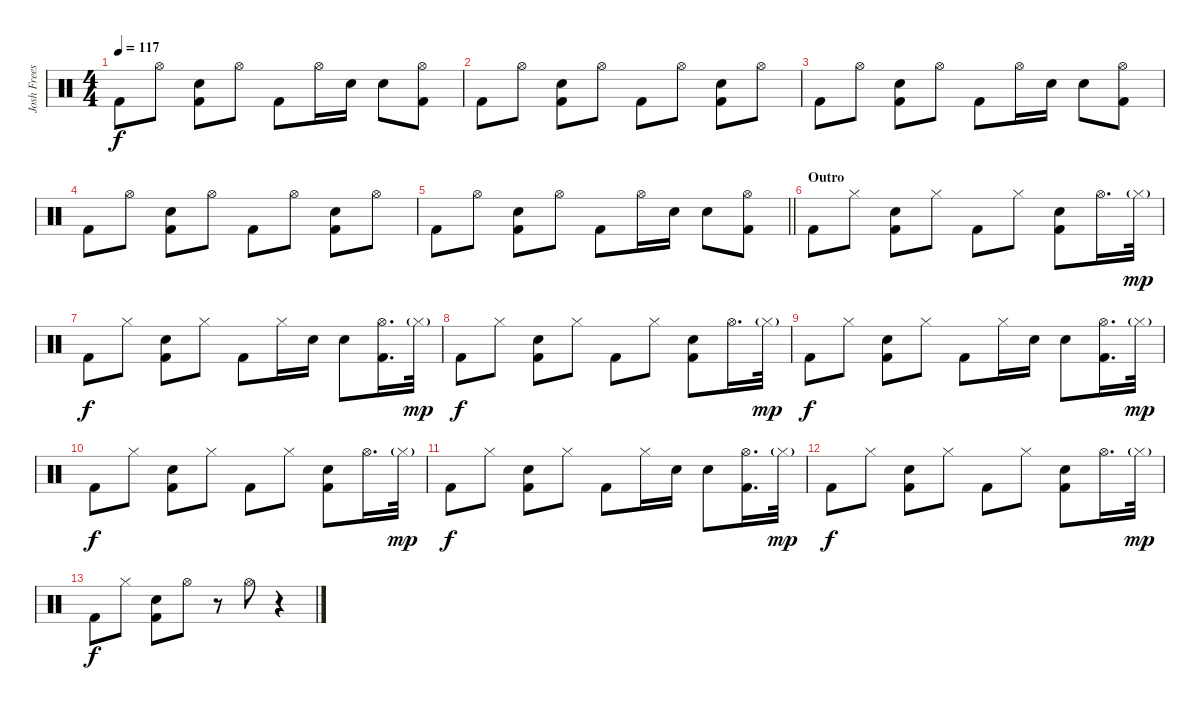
\track ("Josh Freese" "Josh Frees") {instrument percussion}
\staff {score}
\articulation defaults
\ts (4 4)
\tempo 117
\clef neutral
\ks c "Kick (hit) 2".8{dy f} "Hi-Hat (open)".8
("Electric Snare (hit)" "Kick (hit) 2").8 "Hi-Hat (open)".8 "Kick (hit) 2".8 "Hi-Hat (open)".16 "Electric Snare (hit)".16 "Electric Snare (hit)".8 ("Hi-Hat (open)" "Kick (hit) 2").8 |
"Kick (hit) 2".8 "Hi-Hat (open)".8 ("Electric Snare (hit)" "Kick (hit) 2").8 "Hi-Hat (open)".8 "Kick (hit) 2".8 "Hi-Hat (open)".8 ("Electric Snare (hit)" "Kick (hit) 2").8 "Hi-Hat (open)".8 |
"Kick (hit) 2".8 "Hi-Hat (open)".8 ("Electric Snare (hit)" "Kick (hit) 2").8 "Hi-Hat (open)".8 "Kick (hit) 2".8 "Hi-Hat (open)".16 "Electric Snare (hit)".16 "Electric Snare (hit)".8 ("Hi-Hat (open)" "Kick (hit) 2").8 |
"Kick (hit) 2".8 "Hi-Hat (open)".8 ("Electric Snare (hit)" "Kick (hit) 2").8 "Hi-Hat (open)".8 "Kick (hit) 2".8 "Hi-Hat (open)".8 ("Electric Snare (hit)" "Kick (hit) 2").8 "Hi-Hat (open)".8 |
\barLineRight lightlight "Kick (hit) 2".8 "Hi-Hat (open)".8
("Electric Snare (hit)" "Kick (hit) 2").8 "Hi-Hat (open)".8 "Kick (hit) 2".8 "Hi-Hat (open)".16 "Electric Snare (hit)".16 "Electric Snare (hit)".8 ("Hi-Hat (open)" "Kick (hit) 2").8 |
\section ("" "Outro")
"Kick (hit) 2".8 "Hi-Hat (closed)".8 ("Electric Snare (hit)" "Kick (hit) 2").8 "Hi-Hat (closed)".8 "Kick (hit) 2".8 "Hi-Hat (closed)".8 ("Electric Snare (hit)" "Kick (hit) 2").8 "Hi-Hat (open)".16{d} "Hi-Hat (closed)"{g}.32{dy mp} |
"Kick (hit) 2".8{dy f} "Hi-Hat (closed)".8 ("Electric Snare (hit)" "Kick (hit) 2").8 "Hi-Hat (closed)".8 "Kick (hit) 2".8 "Hi-Hat (closed)".16 "Electric Snare (hit)".16 "Electric Snare (hit)".8 ("Hi-Hat (open)" "Kick (hit) 2").16{d} "Hi-Hat (closed)"{g}.32{dy mp} |
"Kick (hit) 2".8{dy f} "Hi-Hat (closed)".8 ("Electric Snare (hit)" "Kick (hit) 2").8 "Hi-Hat (closed)".8 "Kick (hit) 2".8 "Hi-Hat (closed)".8 ("Electric Snare (hit)" "Kick (hit) 2").8 "Hi-Hat (open)".16{d} "Hi-Hat (closed)"{g}.32{dy mp} |
"Kick (hit) 2".8{dy f} "Hi-Hat (closed)".8 ("Electric Snare (hit)" "Kick (hit) 2").8 "Hi-Hat (closed)".8 "Kick (hit) 2".8 "Hi-Hat (closed)".16 "Electric Snare (hit)".16 "Electric Snare (hit)".8 ("Hi-Hat (open)" "Kick (hit) 2").16{d} "Hi-Hat (closed)"{g}.32{dy mp} |
"Kick (hit) 2".8{dy f} "Hi-Hat (closed)".8 ("Electric Snare (hit)" "Kick (hit) 2").8 "Hi-Hat (closed)".8 "Kick (hit) 2".8 "Hi-Hat (closed)".8 ("Electric Snare (hit)" "Kick (hit) 2").8 "Hi-Hat (open)".16{d} "Hi-Hat (closed)"{g}.32{dy mp} |
"Kick (hit) 2".8{dy f} "Hi-Hat (closed)".8 ("Electric Snare (hit)" "Kick (hit) 2").8 "Hi-Hat (closed)".8 "Kick (hit) 2".8 "Hi-Hat (closed)".16 "Electric Snare (hit)".16 "Electric Snare (hit)".8 ("Hi-Hat (open)" "Kick (hit) 2").16{d} "Hi-Hat (closed)"{g}.32{dy mp} |
"Kick (hit) 2".8{dy f} "Hi-Hat (closed)".8 ("Electric Snare (hit)" "Kick (hit) 2").8 "Hi-Hat (closed)".8 "Kick (hit) 2".8 "Hi-Hat (closed)".8 ("Electric Snare (hit)" "Kick (hit) 2").8 "Hi-Hat (open)".16{d} "Hi-Hat (closed)"{g}.32{dy mp} |
"Kick (hit) 2".8{dy f} "Hi-Hat (closed)".8 ("Electric Snare (hit)" "Kick (hit) 2").8 "Hi-Hat (open)".8 r.8 "Hi-Hat (open)".8 r.4
